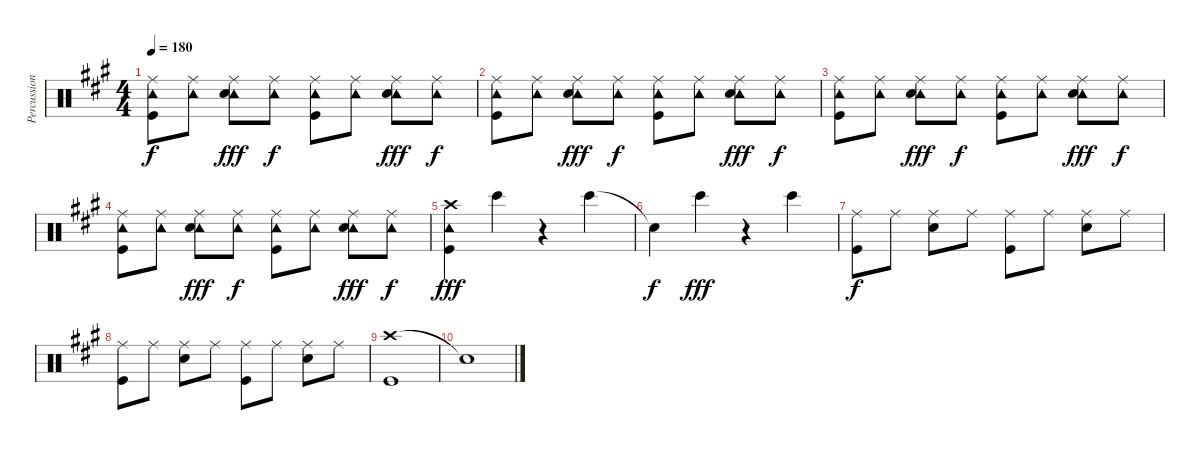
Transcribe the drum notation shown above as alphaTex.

\track ("Percussion" "Percussion") {instrument percussion}
\staff {score}
\articulation defaults
\ts (4 4)
\tempo 180
\clef neutral
\ks a
("Ride (middle)" "Tambourine (hit)" "Kick (hit)").8{dy f} ("Ride (middle)" "Tambourine (hit)").8 ("Ride (middle)" "Tambourine (hit)" "Snare (hit) 2").8{dy fff} ("Ride (middle)" "Tambourine (hit)").8{dy f} ("Ride (middle)" "Tambourine (hit)" "Kick (hit)").8 ("Ride (middle)" "Tambourine (hit)").8 ("Ride (middle)" "Tambourine (hit)" "Snare (hit) 2").8{dy fff} ("Ride (middle)" "Tambourine (hit)").8{dy f} |
("Ride (middle)" "Tambourine (hit)" "Kick (hit)").8 ("Ride (middle)" "Tambourine (hit)").8 ("Ride (middle)" "Tambourine (hit)" "Snare (hit) 2").8{dy fff} ("Ride (middle)" "Tambourine (hit)").8{dy f} ("Ride (middle)" "Tambourine (hit)" "Kick (hit)").8 ("Ride (middle)" "Tambourine (hit)").8 ("Ride (middle)" "Tambourine (hit)" "Snare (hit) 2").8{dy fff} ("Ride (middle)" "Tambourine (hit)").8{dy f} |
("Ride (middle)" "Tambourine (hit)" "Kick (hit)").8 ("Ride (middle)" "Tambourine (hit)").8 ("Ride (middle)" "Tambourine (hit)" "Snare (hit) 2").8{dy fff} ("Ride (middle)" "Tambourine (hit)").8{dy f} ("Ride (middle)" "Tambourine (hit)" "Kick (hit)").8 ("Ride (middle)" "Tambourine (hit)").8 ("Ride (middle)" "Tambourine (hit)" "Snare (hit) 2").8{dy fff} ("Ride (middle)" "Tambourine (hit)").8{dy f} |
("Ride (middle)" "Tambourine (hit)" "Kick (hit)").8 ("Ride (middle)" "Tambourine (hit)").8 ("Ride (middle)" "Tambourine (hit)" "Snare (hit) 2").8{dy fff} ("Ride (middle)" "Tambourine (hit)").8{dy f} ("Ride (middle)" "Tambourine (hit)" "Kick (hit)").8 ("Ride (middle)" "Tambourine (hit)").8 ("Ride (middle)" "Tambourine (hit)" "Snare (hit) 2").8{dy fff} ("Ride (middle)" "Tambourine (hit)").8{dy f} |
("Crash high (hit)" "Tambourine (hit)" "Kick (hit)").4{dy fff} "Bongo High (hit)".4 r.4 "Bongo High (hit)".4 |
"Snare (hit)"{t}.4{dy f} "Bongo High (hit)".4{dy fff} r.4 "Bongo High (hit)".4 |
("Ride (middle)" "Kick (hit)").8{dy f} "Ride (middle)".8 ("Ride (middle)" "Snare (hit) 2").8 "Ride (middle)".8 ("Ride (middle)" "Kick (hit)").8 "Ride (middle)".8 ("Ride (middle)" "Snare (hit) 2").8 "Ride (middle)".8 |
("Ride (middle)" "Kick (hit)").8 "Ride (middle)".8 ("Ride (middle)" "Snare (hit) 2").8 "Ride (middle)".8 ("Ride (middle)" "Kick (hit)").8 "Ride (middle)".8 ("Ride (middle)" "Snare (hit) 2").8 "Ride (middle)".8 |
("Crash high (hit)" "Kick (hit)").1 |
"Snare (hit)"{t}.1
